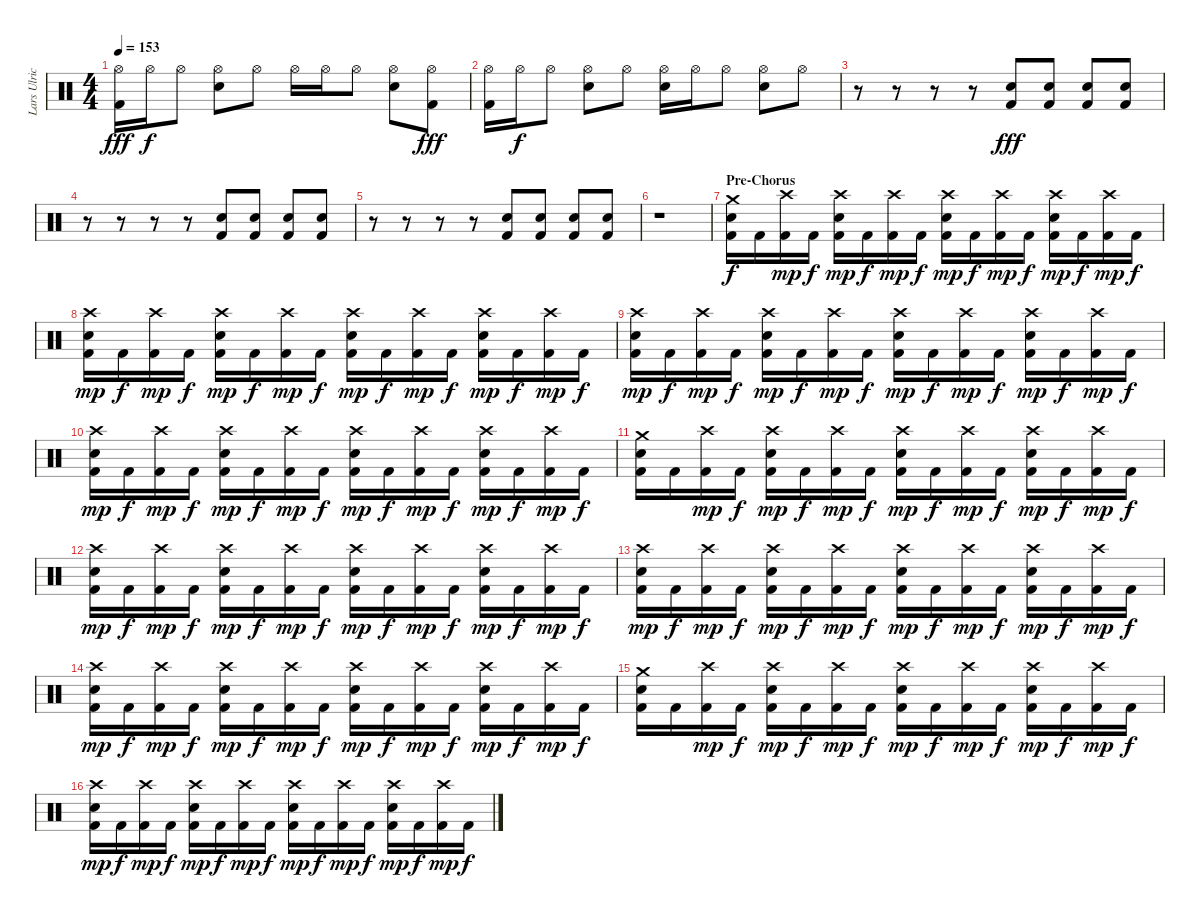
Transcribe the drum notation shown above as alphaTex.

\track ("Lars Ulrich (Drums)" "Lars Ulric") {instrument percussion}
\staff {score}
\articulation defaults
\ts (4 4)
\tempo 153
\clef neutral
\ks c
("Hi-Hat (open)" "Kick (hit) 2").16{dy fff} "Hi-Hat (open)".16{dy f} "Hi-Hat (open)".8 ("Hi-Hat (open)" "Electric Snare (hit)").8 "Hi-Hat (open)".8 "Hi-Hat (open)".16 "Hi-Hat (open)".16 "Hi-Hat (open)".8 ("Hi-Hat (open)" "Electric Snare (hit)").8 ("Hi-Hat (open)" "Kick (hit) 2").8{dy fff} |
("Hi-Hat (open)" "Kick (hit) 2").16 "Hi-Hat (open)".16{dy f} "Hi-Hat (open)".8 ("Hi-Hat (open)" "Electric Snare (hit)").8 "Hi-Hat (open)".8 ("Hi-Hat (open)" "Electric Snare (hit)").16 "Hi-Hat (open)".16 "Hi-Hat (open)".8 ("Hi-Hat (open)" "Electric Snare (hit)").8 "Hi-Hat (open)".8 |
r.8 r.8 r.8 r.8 ("Electric Snare (hit)" "Kick (hit) 2").8{dy fff} ("Electric Snare (hit)" "Kick (hit) 2").8 ("Electric Snare (hit)" "Kick (hit) 2").8 ("Electric Snare (hit)" "Kick (hit) 2").8 |
r.8 r.8 r.8 r.8 ("Electric Snare (hit)" "Kick (hit) 2").8 ("Electric Snare (hit)" "Kick (hit) 2").8 ("Electric Snare (hit)" "Kick (hit) 2").8 ("Electric Snare (hit)" "Kick (hit) 2").8 |
r.8 r.8 r.8 r.8 ("Electric Snare (hit)" "Kick (hit) 2").8 ("Electric Snare (hit)" "Kick (hit) 2").8 ("Electric Snare (hit)" "Kick (hit) 2").8 ("Electric Snare (hit)" "Kick (hit) 2").8 |
r.1 |
\section ("" "Pre-Chorus")
("Crash medium (hit)" "Electric Snare (hit)" "Kick (hit) 2").16{dy f} "Kick (hit) 2".16 ("Crash high (hit)" "Kick (hit) 2").16{dy mp} "Kick (hit) 2".16{dy f} ("Crash high (hit)" "Electric Snare (hit)" "Kick (hit) 2").16{dy mp} "Kick (hit) 2".16{dy f} ("Crash high (hit)" "Kick (hit) 2").16{dy mp} "Kick (hit) 2".16{dy f} ("Crash high (hit)" "Electric Snare (hit)" "Kick (hit) 2").16{dy mp} "Kick (hit) 2".16{dy f} ("Crash high (hit)" "Kick (hit) 2").16{dy mp} "Kick (hit) 2".16{dy f} ("Crash high (hit)" "Electric Snare (hit)" "Kick (hit) 2").16{dy mp} "Kick (hit) 2".16{dy f} ("Crash high (hit)" "Kick (hit) 2").16{dy mp} "Kick (hit) 2".16{dy f} |
("Crash high (hit)" "Electric Snare (hit)" "Kick (hit) 2").16{dy mp} "Kick (hit) 2".16{dy f} ("Crash high (hit)" "Kick (hit) 2").16{dy mp} "Kick (hit) 2".16{dy f} ("Crash high (hit)" "Electric Snare (hit)" "Kick (hit) 2").16{dy mp} "Kick (hit) 2".16{dy f} ("Crash high (hit)" "Kick (hit) 2").16{dy mp} "Kick (hit) 2".16{dy f} ("Crash high (hit)" "Electric Snare (hit)" "Kick (hit) 2").16{dy mp} "Kick (hit) 2".16{dy f} ("Crash high (hit)" "Kick (hit) 2").16{dy mp} "Kick (hit) 2".16{dy f} ("Crash high (hit)" "Electric Snare (hit)" "Kick (hit) 2").16{dy mp} "Kick (hit) 2".16{dy f} ("Crash high (hit)" "Kick (hit) 2").16{dy mp} "Kick (hit) 2".16{dy f} |
("Crash high (hit)" "Electric Snare (hit)" "Kick (hit) 2").16{dy mp} "Kick (hit) 2".16{dy f} ("Crash high (hit)" "Kick (hit) 2").16{dy mp} "Kick (hit) 2".16{dy f} ("Crash high (hit)" "Electric Snare (hit)" "Kick (hit) 2").16{dy mp} "Kick (hit) 2".16{dy f} ("Crash high (hit)" "Kick (hit) 2").16{dy mp} "Kick (hit) 2".16{dy f} ("Crash high (hit)" "Electric Snare (hit)" "Kick (hit) 2").16{dy mp} "Kick (hit) 2".16{dy f} ("Crash high (hit)" "Kick (hit) 2").16{dy mp} "Kick (hit) 2".16{dy f} ("Crash high (hit)" "Electric Snare (hit)" "Kick (hit) 2").16{dy mp} "Kick (hit) 2".16{dy f} ("Crash high (hit)" "Kick (hit) 2").16{dy mp} "Kick (hit) 2".16{dy f} |
("Crash high (hit)" "Electric Snare (hit)" "Kick (hit) 2").16{dy mp} "Kick (hit) 2".16{dy f} ("Crash high (hit)" "Kick (hit) 2").16{dy mp} "Kick (hit) 2".16{dy f} ("Crash high (hit)" "Electric Snare (hit)" "Kick (hit) 2").16{dy mp} "Kick (hit) 2".16{dy f} ("Crash high (hit)" "Kick (hit) 2").16{dy mp} "Kick (hit) 2".16{dy f} ("Crash high (hit)" "Electric Snare (hit)" "Kick (hit) 2").16{dy mp} "Kick (hit) 2".16{dy f} ("Crash high (hit)" "Kick (hit) 2").16{dy mp} "Kick (hit) 2".16{dy f} ("Crash high (hit)" "Electric Snare (hit)" "Kick (hit) 2").16{dy mp} "Kick (hit) 2".16{dy f} ("Crash high (hit)" "Kick (hit) 2").16{dy mp} "Kick (hit) 2".16{dy f} |
("Crash medium (hit)" "Electric Snare (hit)" "Kick (hit) 2").16 "Kick (hit) 2".16 ("Crash high (hit)" "Kick (hit) 2").16{dy mp} "Kick (hit) 2".16{dy f} ("Crash high (hit)" "Electric Snare (hit)" "Kick (hit) 2").16{dy mp} "Kick (hit) 2".16{dy f} ("Crash high (hit)" "Kick (hit) 2").16{dy mp} "Kick (hit) 2".16{dy f} ("Crash high (hit)" "Electric Snare (hit)" "Kick (hit) 2").16{dy mp} "Kick (hit) 2".16{dy f} ("Crash high (hit)" "Kick (hit) 2").16{dy mp} "Kick (hit) 2".16{dy f} ("Crash high (hit)" "Electric Snare (hit)" "Kick (hit) 2").16{dy mp} "Kick (hit) 2".16{dy f} ("Crash high (hit)" "Kick (hit) 2").16{dy mp} "Kick (hit) 2".16{dy f} |
("Crash high (hit)" "Electric Snare (hit)" "Kick (hit) 2").16{dy mp} "Kick (hit) 2".16{dy f} ("Crash high (hit)" "Kick (hit) 2").16{dy mp} "Kick (hit) 2".16{dy f} ("Crash high (hit)" "Electric Snare (hit)" "Kick (hit) 2").16{dy mp} "Kick (hit) 2".16{dy f} ("Crash high (hit)" "Kick (hit) 2").16{dy mp} "Kick (hit) 2".16{dy f} ("Crash high (hit)" "Electric Snare (hit)" "Kick (hit) 2").16{dy mp} "Kick (hit) 2".16{dy f} ("Crash high (hit)" "Kick (hit) 2").16{dy mp} "Kick (hit) 2".16{dy f} ("Crash high (hit)" "Electric Snare (hit)" "Kick (hit) 2").16{dy mp} "Kick (hit) 2".16{dy f} ("Crash high (hit)" "Kick (hit) 2").16{dy mp} "Kick (hit) 2".16{dy f} |
("Crash high (hit)" "Electric Snare (hit)" "Kick (hit) 2").16{dy mp} "Kick (hit) 2".16{dy f} ("Crash high (hit)" "Kick (hit) 2").16{dy mp} "Kick (hit) 2".16{dy f} ("Crash high (hit)" "Electric Snare (hit)" "Kick (hit) 2").16{dy mp} "Kick (hit) 2".16{dy f} ("Crash high (hit)" "Kick (hit) 2").16{dy mp} "Kick (hit) 2".16{dy f} ("Crash high (hit)" "Electric Snare (hit)" "Kick (hit) 2").16{dy mp} "Kick (hit) 2".16{dy f} ("Crash high (hit)" "Kick (hit) 2").16{dy mp} "Kick (hit) 2".16{dy f} ("Crash high (hit)" "Electric Snare (hit)" "Kick (hit) 2").16{dy mp} "Kick (hit) 2".16{dy f} ("Crash high (hit)" "Kick (hit) 2").16{dy mp} "Kick (hit) 2".16{dy f} |
("Crash high (hit)" "Electric Snare (hit)" "Kick (hit) 2").16{dy mp} "Kick (hit) 2".16{dy f} ("Crash high (hit)" "Kick (hit) 2").16{dy mp} "Kick (hit) 2".16{dy f} ("Crash high (hit)" "Electric Snare (hit)" "Kick (hit) 2").16{dy mp} "Kick (hit) 2".16{dy f} ("Crash high (hit)" "Kick (hit) 2").16{dy mp} "Kick (hit) 2".16{dy f} ("Crash high (hit)" "Electric Snare (hit)" "Kick (hit) 2").16{dy mp} "Kick (hit) 2".16{dy f} ("Crash high (hit)" "Kick (hit) 2").16{dy mp} "Kick (hit) 2".16{dy f} ("Crash high (hit)" "Electric Snare (hit)" "Kick (hit) 2").16{dy mp} "Kick (hit) 2".16{dy f} ("Crash high (hit)" "Kick (hit) 2").16{dy mp} "Kick (hit) 2".16{dy f} |
("Crash medium (hit)" "Electric Snare (hit)" "Kick (hit) 2").16 "Kick (hit) 2".16 ("Crash high (hit)" "Kick (hit) 2").16{dy mp} "Kick (hit) 2".16{dy f} ("Crash high (hit)" "Electric Snare (hit)" "Kick (hit) 2").16{dy mp} "Kick (hit) 2".16{dy f} ("Crash high (hit)" "Kick (hit) 2").16{dy mp} "Kick (hit) 2".16{dy f} ("Crash high (hit)" "Electric Snare (hit)" "Kick (hit) 2").16{dy mp} "Kick (hit) 2".16{dy f} ("Crash high (hit)" "Kick (hit) 2").16{dy mp} "Kick (hit) 2".16{dy f} ("Crash high (hit)" "Electric Snare (hit)" "Kick (hit) 2").16{dy mp} "Kick (hit) 2".16{dy f} ("Crash high (hit)" "Kick (hit) 2").16{dy mp} "Kick (hit) 2".16{dy f} |
("Crash high (hit)" "Electric Snare (hit)" "Kick (hit) 2").16{dy mp} "Kick (hit) 2".16{dy f} ("Crash high (hit)" "Kick (hit) 2").16{dy mp} "Kick (hit) 2".16{dy f} ("Crash high (hit)" "Electric Snare (hit)" "Kick (hit) 2").16{dy mp} "Kick (hit) 2".16{dy f} ("Crash high (hit)" "Kick (hit) 2").16{dy mp} "Kick (hit) 2".16{dy f} ("Crash high (hit)" "Electric Snare (hit)" "Kick (hit) 2").16{dy mp} "Kick (hit) 2".16{dy f} ("Crash high (hit)" "Kick (hit) 2").16{dy mp} "Kick (hit) 2".16{dy f} ("Crash high (hit)" "Electric Snare (hit)" "Kick (hit) 2").16{dy mp} "Kick (hit) 2".16{dy f} ("Crash high (hit)" "Kick (hit) 2").16{dy mp} "Kick (hit) 2".16{dy f}
